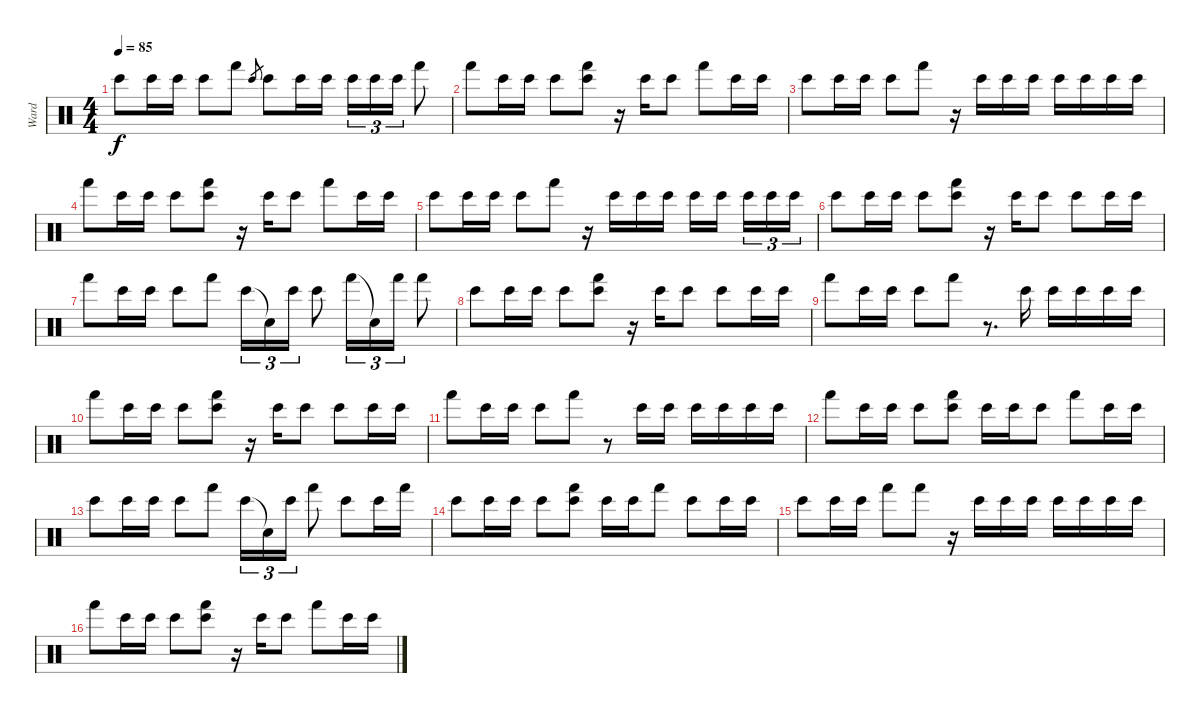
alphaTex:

\track ("Ward" "Ward") {instrument percussion}
\staff {score}
\articulation defaults
\ts (4 4)
\tempo 85
\clef neutral
\ks c "Bongo High (hit)".8{dy f} "Bongo High (hit)".16 "Bongo High (hit)".16 "Bongo High (hit)".8 "Hand (hit)".8 "Bongo High (hit)".8{gr} "Bongo High (hit)".8 "Bongo High (hit)".16 "Bongo High (hit)".16 "Bongo High (hit)".16{tu (3 2)} "Bongo High (hit)".16{tu (3 2)} "Bongo High (hit)".16{tu (3 2)} "Hand (hit)".8
|
"Hand (hit)".8 "Bongo High (hit)".16 "Bongo High (hit)".16 "Bongo High (hit)".8 ("Bongo High (hit)" "Hand (hit)").8 r.16 "Bongo High (hit)".16 "Bongo High (hit)".8 "Hand (hit)".8 "Bongo High (hit)".16 "Bongo High (hit)".16 |
"Bongo High (hit)".8 "Bongo High (hit)".16 "Bongo High (hit)".16 "Bongo High (hit)".8 "Hand (hit)".8 r.16 "Bongo High (hit)".16 "Bongo High (hit)".16 "Bongo High (hit)".16 "Bongo High (hit)".16 "Bongo High (hit)".16 "Bongo High (hit)".16 "Bongo High (hit)".16 |
"Hand (hit)".8 "Bongo High (hit)".16 "Bongo High (hit)".16 "Bongo High (hit)".8 ("Bongo High (hit)" "Hand (hit)").8 r.16 "Bongo High (hit)".16 "Bongo High (hit)".8 "Hand (hit)".8 "Bongo High (hit)".16 "Bongo High (hit)".16 |
"Bongo High (hit)".8 "Bongo High (hit)".16 "Bongo High (hit)".16 "Bongo High (hit)".8 "Hand (hit)".8 r.16 "Bongo High (hit)".16 "Bongo High (hit)".16 "Bongo High (hit)".16 "Bongo High (hit)".16 "Bongo High (hit)".16{beam splitsecondary} "Bongo High (hit)".16{tu (3 2)} "Bongo High (hit)".16{tu (3 2)} "Bongo High (hit)".16{tu (3 2)} |
"Bongo High (hit)".8 "Bongo High (hit)".16 "Bongo High (hit)".16 "Bongo High (hit)".8 ("Bongo High (hit)" "Hand (hit)").8 r.16 "Bongo High (hit)".16 "Bongo High (hit)".8 "Bongo High (hit)".8 "Bongo High (hit)".16 "Bongo High (hit)".16 |
"Hand (hit)".8 "Bongo High (hit)".16 "Bongo High (hit)".16 "Bongo High (hit)".8 "Hand (hit)".8 "Bongo High (hit)".16{tu (3 2)} "Snare (hit)"{t}.16{tu (3 2)} "Bongo High (hit)".16{tu (3 2)} "Bongo High (hit)".8 "Hand (hit)".16{tu (3 2)} "Snare (hit)"{t}.16{tu (3 2)} "Hand (hit)".16{tu (3 2)} "Hand (hit)".8 |
"Bongo High (hit)".8 "Bongo High (hit)".16 "Bongo High (hit)".16 "Bongo High (hit)".8 ("Bongo High (hit)" "Hand (hit)").8 r.16 "Bongo High (hit)".16 "Bongo High (hit)".8 "Bongo High (hit)".8 "Bongo High (hit)".16 "Bongo High (hit)".16 |
"Hand (hit)".8 "Bongo High (hit)".16 "Bongo High (hit)".16 "Bongo High (hit)".8 "Hand (hit)".8 r.8{d} "Bongo High (hit)".16 "Bongo High (hit)".16 "Bongo High (hit)".16 "Bongo High (hit)".16 "Bongo High (hit)".16 |
"Hand (hit)".8 "Bongo High (hit)".16 "Bongo High (hit)".16 "Bongo High (hit)".8 ("Bongo High (hit)" "Hand (hit)").8 r.16 "Bongo High (hit)".16 "Bongo High (hit)".8 "Bongo High (hit)".8 "Bongo High (hit)".16 "Bongo High (hit)".16 |
"Hand (hit)".8 "Bongo High (hit)".16 "Bongo High (hit)".16 "Bongo High (hit)".8 "Hand (hit)".8 r.8 "Bongo High (hit)".16 "Bongo High (hit)".16 "Bongo High (hit)".16 "Bongo High (hit)".16 "Bongo High (hit)".16 "Bongo High (hit)".16 |
"Hand (hit)".8 "Bongo High (hit)".16 "Bongo High (hit)".16 "Bongo High (hit)".8 ("Bongo High (hit)" "Hand (hit)").8 "Bongo High (hit)".16 "Bongo High (hit)".16 "Bongo High (hit)".8 "Hand (hit)".8 "Bongo High (hit)".16 "Bongo High (hit)".16 |
"Bongo High (hit)".8 "Bongo High (hit)".16 "Bongo High (hit)".16 "Bongo High (hit)".8 "Hand (hit)".8 "Bongo High (hit)".16{tu (3 2)} "Snare (hit)"{t}.16{tu (3 2)} "Bongo High (hit)".16{tu (3 2)} "Hand (hit)".8 "Bongo High (hit)".8 "Bongo High (hit)".16 "Hand (hit)".16 |
"Bongo High (hit)".8 "Bongo High (hit)".16 "Bongo High (hit)".16 "Bongo High (hit)".8 ("Bongo High (hit)" "Hand (hit)").8 "Bongo High (hit)".16 "Bongo High (hit)".16 "Hand (hit)".8 "Bongo High (hit)".8 "Bongo High (hit)".16 "Bongo High (hit)".16 |
"Bongo High (hit)".8 "Bongo High (hit)".16 "Bongo High (hit)".16 "Hand (hit)".8 "Hand (hit)".8 r.16 "Bongo High (hit)".16 "Bongo High (hit)".16 "Bongo High (hit)".16 "Bongo High (hit)".16 "Bongo High (hit)".16 "Bongo High (hit)".16 "Bongo High (hit)".16 |
"Hand (hit)".8 "Bongo High (hit)".16 "Bongo High (hit)".16 "Bongo High (hit)".8 ("Bongo High (hit)" "Hand (hit)").8 r.16 "Bongo High (hit)".16 "Bongo High (hit)".8 "Hand (hit)".8 "Bongo High (hit)".16 "Bongo High (hit)".16
